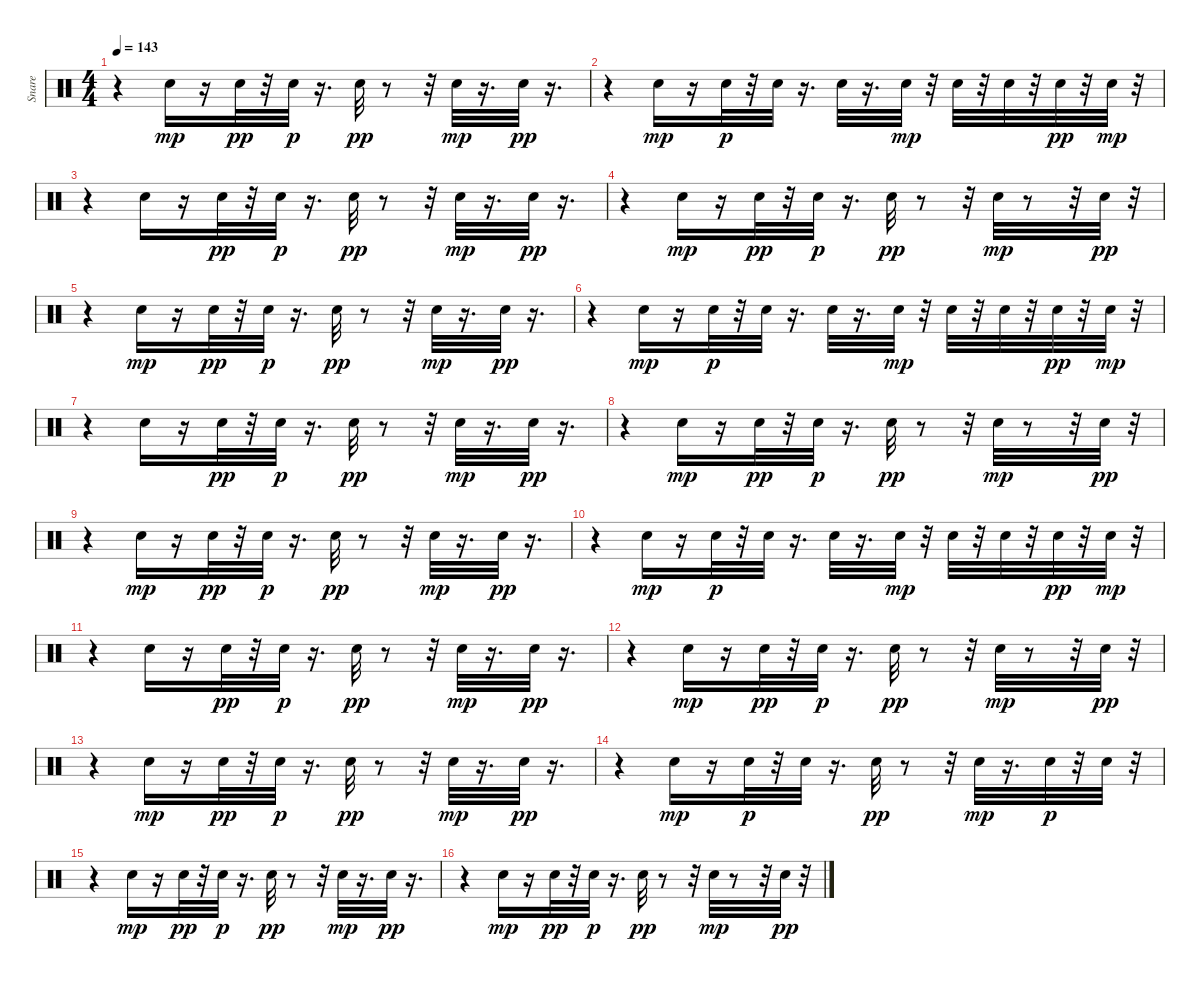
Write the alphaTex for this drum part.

\track ("Snare    " "Snare    ") {instrument percussion}
\staff {score}
\articulation defaults
\ts (4 4)
\tempo 143
\clef neutral
\ks c
r.4{dy pp} "Electric Snare (hit)".16{dy mp} r.16 "Electric Snare (hit)".32{dy pp} r.32 "Snare (hit) 2".32{dy p} r.16{d} "Electric Snare (hit)".32{dy pp} r.8 r.32 "Electric Snare (hit)".32{dy mp} r.16{d} "Electric Snare (hit)".32{dy pp} r.16{d} |
r.4 "Electric Snare (hit)".16{dy mp} r.16 "Electric Snare (hit)".32{dy p} r.32 "Snare (hit) 2".32 r.16{d} "Snare (hit) 2".32 r.16{d} "Snare (hit) 2".32{dy mp} r.32 "Electric Snare (hit)".32 r.32 "Snare (hit) 2".32 r.32 "Snare (hit) 2".32{dy pp} r.32 "Snare (hit) 2".32{dy mp} r.32 |
r.4 "Electric Snare (hit)".16 r.16 "Electric Snare (hit)".32{dy pp} r.32 "Snare (hit) 2".32{dy p} r.16{d} "Electric Snare (hit)".32{dy pp} r.8 r.32 "Electric Snare (hit)".32{dy mp} r.16{d} "Electric Snare (hit)".32{dy pp} r.16{d} |
r.4 "Electric Snare (hit)".16{dy mp} r.16 "Electric Snare (hit)".32{dy pp} r.32 "Snare (hit) 2".32{dy p} r.16{d} "Electric Snare (hit)".32{dy pp} r.8 r.32 "Electric Snare (hit)".32{dy mp} r.8 r.32 "Electric Snare (hit)".32{dy pp} r.32 |
r.4 "Electric Snare (hit)".16{dy mp} r.16 "Electric Snare (hit)".32{dy pp} r.32 "Snare (hit) 2".32{dy p} r.16{d} "Electric Snare (hit)".32{dy pp} r.8 r.32 "Electric Snare (hit)".32{dy mp} r.16{d} "Electric Snare (hit)".32{dy pp} r.16{d} |
r.4 "Electric Snare (hit)".16{dy mp} r.16 "Electric Snare (hit)".32{dy p} r.32 "Snare (hit) 2".32 r.16{d} "Snare (hit) 2".32 r.16{d} "Snare (hit) 2".32{dy mp} r.32 "Electric Snare (hit)".32 r.32 "Snare (hit) 2".32 r.32 "Snare (hit) 2".32{dy pp} r.32 "Snare (hit) 2".32{dy mp} r.32 |
r.4 "Electric Snare (hit)".16 r.16 "Electric Snare (hit)".32{dy pp} r.32 "Snare (hit) 2".32{dy p} r.16{d} "Electric Snare (hit)".32{dy pp} r.8 r.32 "Electric Snare (hit)".32{dy mp} r.16{d} "Electric Snare (hit)".32{dy pp} r.16{d} |
r.4 "Electric Snare (hit)".16{dy mp} r.16 "Electric Snare (hit)".32{dy pp} r.32 "Snare (hit) 2".32{dy p} r.16{d} "Electric Snare (hit)".32{dy pp} r.8 r.32 "Electric Snare (hit)".32{dy mp} r.8 r.32 "Electric Snare (hit)".32{dy pp} r.32 |
r.4 "Electric Snare (hit)".16{dy mp} r.16 "Electric Snare (hit)".32{dy pp} r.32 "Snare (hit) 2".32{dy p} r.16{d} "Electric Snare (hit)".32{dy pp} r.8 r.32 "Electric Snare (hit)".32{dy mp} r.16{d} "Electric Snare (hit)".32{dy pp} r.16{d} |
r.4 "Electric Snare (hit)".16{dy mp} r.16 "Electric Snare (hit)".32{dy p} r.32 "Snare (hit) 2".32 r.16{d} "Snare (hit) 2".32 r.16{d} "Snare (hit) 2".32{dy mp} r.32 "Electric Snare (hit)".32 r.32 "Snare (hit) 2".32 r.32 "Snare (hit) 2".32{dy pp} r.32 "Snare (hit) 2".32{dy mp} r.32 |
r.4 "Electric Snare (hit)".16 r.16 "Electric Snare (hit)".32{dy pp} r.32 "Snare (hit) 2".32{dy p} r.16{d} "Electric Snare (hit)".32{dy pp} r.8 r.32 "Electric Snare (hit)".32{dy mp} r.16{d} "Electric Snare (hit)".32{dy pp} r.16{d} |
r.4 "Electric Snare (hit)".16{dy mp} r.16 "Electric Snare (hit)".32{dy pp} r.32 "Snare (hit) 2".32{dy p} r.16{d} "Electric Snare (hit)".32{dy pp} r.8 r.32 "Electric Snare (hit)".32{dy mp} r.8 r.32 "Electric Snare (hit)".32{dy pp} r.32 |
r.4 "Electric Snare (hit)".16{dy mp} r.16 "Electric Snare (hit)".32{dy pp} r.32 "Snare (hit) 2".32{dy p} r.16{d} "Electric Snare (hit)".32{dy pp} r.8 r.32 "Electric Snare (hit)".32{dy mp} r.16{d} "Electric Snare (hit)".32{dy pp} r.16{d} |
r.4 "Electric Snare (hit)".16{dy mp} r.16 "Electric Snare (hit)".32{dy p} r.32 "Snare (hit) 2".32 r.16{d} "Electric Snare (hit)".32{dy pp} r.8 r.32 "Electric Snare (hit)".32{dy mp} r.16{d} "Snare (hit) 2".32{dy p} r.32 "Snare (hit) 2".32 r.32 |
r.4 "Electric Snare (hit)".16{dy mp} r.16 "Electric Snare (hit)".32{dy pp} r.32 "Snare (hit) 2".32{dy p} r.16{d} "Electric Snare (hit)".32{dy pp} r.8 r.32 "Electric Snare (hit)".32{dy mp} r.16{d} "Electric Snare (hit)".32{dy pp} r.16{d} |
r.4 "Electric Snare (hit)".16{dy mp} r.16 "Electric Snare (hit)".32{dy pp} r.32 "Snare (hit) 2".32{dy p} r.16{d} "Electric Snare (hit)".32{dy pp} r.8 r.32 "Electric Snare (hit)".32{dy mp} r.8 r.32 "Electric Snare (hit)".32{dy pp} r.32
